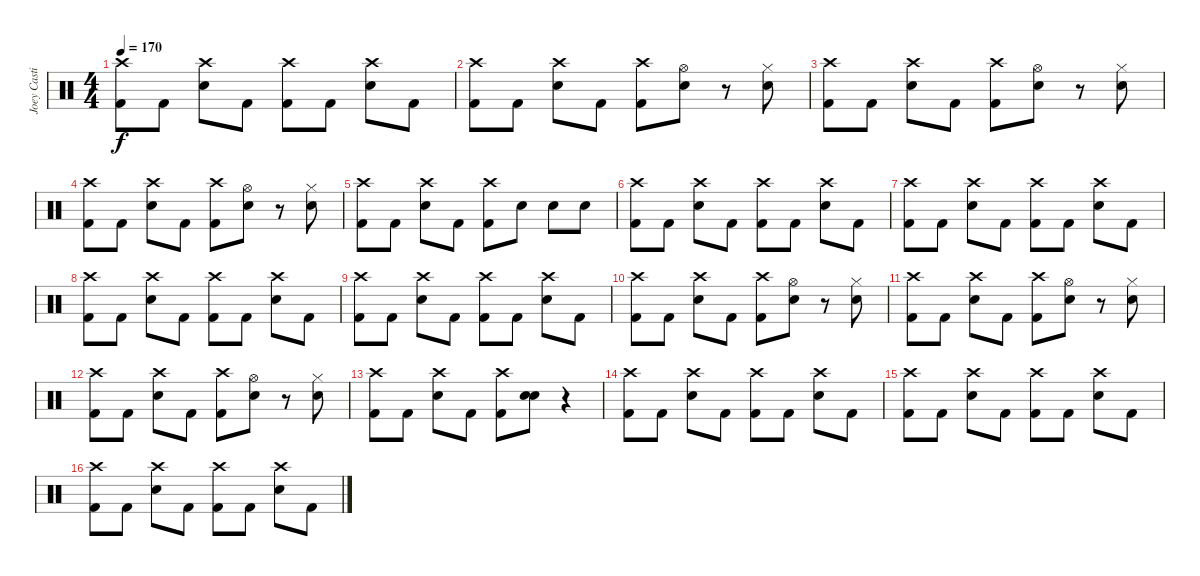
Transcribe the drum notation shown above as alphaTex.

\track ("Joey Castillo - drums" "Joey Casti") {instrument percussion}
\staff {score}
\articulation defaults
\ts (4 4)
\tempo 170
\clef neutral
\ks c
("Kick (hit) 2" "Crash high (hit)").8{dy f} "Kick (hit) 2".8 ("Electric Snare (hit)" "Crash high (hit)").8 "Kick (hit) 2".8 ("Kick (hit) 2" "Crash high (hit)").8 "Kick (hit) 2".8 ("Electric Snare (hit)" "Crash high (hit)").8 "Kick (hit) 2".8 |
("Kick (hit) 2" "Crash high (hit)").8 "Kick (hit) 2".8 ("Electric Snare (hit)" "Crash high (hit)").8 "Kick (hit) 2".8 ("Kick (hit) 2" "Crash high (hit)").8 ("Electric Snare (hit)" "Hi-Hat (open)").8 r.8 ("Electric Snare (hit)" "Hi-Hat (closed)").8 |
("Kick (hit) 2" "Crash high (hit)").8 "Kick (hit) 2".8 ("Electric Snare (hit)" "Crash high (hit)").8 "Kick (hit) 2".8 ("Kick (hit) 2" "Crash high (hit)").8 ("Electric Snare (hit)" "Hi-Hat (open)").8 r.8 ("Electric Snare (hit)" "Hi-Hat (closed)").8 |
("Kick (hit) 2" "Crash high (hit)").8 "Kick (hit) 2".8 ("Electric Snare (hit)" "Crash high (hit)").8 "Kick (hit) 2".8 ("Kick (hit) 2" "Crash high (hit)").8 ("Electric Snare (hit)" "Hi-Hat (open)").8 r.8 ("Electric Snare (hit)" "Hi-Hat (closed)").8 |
("Kick (hit) 2" "Crash high (hit)").8 "Kick (hit) 2".8 ("Electric Snare (hit)" "Crash high (hit)").8 "Kick (hit) 2".8 ("Kick (hit) 2" "Crash high (hit)").8 "Electric Snare (hit)".8 "Electric Snare (hit)".8 "Electric Snare (hit)".8 |
\section ("" "")
("Kick (hit) 2" "Crash high (hit)").8 "Kick (hit) 2".8 ("Electric Snare (hit)" "Crash high (hit)").8 "Kick (hit) 2".8 ("Kick (hit) 2" "Crash high (hit)").8 "Kick (hit) 2".8 ("Electric Snare (hit)" "Crash high (hit)").8 "Kick (hit) 2".8 |
("Kick (hit) 2" "Crash high (hit)").8 "Kick (hit) 2".8 ("Electric Snare (hit)" "Crash high (hit)").8 "Kick (hit) 2".8 ("Kick (hit) 2" "Crash high (hit)").8 "Kick (hit) 2".8 ("Electric Snare (hit)" "Crash high (hit)").8 "Kick (hit) 2".8 |
("Kick (hit) 2" "Crash high (hit)").8 "Kick (hit) 2".8 ("Electric Snare (hit)" "Crash high (hit)").8 "Kick (hit) 2".8 ("Kick (hit) 2" "Crash high (hit)").8 "Kick (hit) 2".8 ("Electric Snare (hit)" "Crash high (hit)").8 "Kick (hit) 2".8 |
("Kick (hit) 2" "Crash high (hit)").8 "Kick (hit) 2".8 ("Electric Snare (hit)" "Crash high (hit)").8 "Kick (hit) 2".8 ("Kick (hit) 2" "Crash high (hit)").8 "Kick (hit) 2".8 ("Electric Snare (hit)" "Crash high (hit)").8 "Kick (hit) 2".8 |
("Kick (hit) 2" "Crash high (hit)").8 "Kick (hit) 2".8 ("Electric Snare (hit)" "Crash high (hit)").8 "Kick (hit) 2".8 ("Kick (hit) 2" "Crash high (hit)").8 ("Electric Snare (hit)" "Hi-Hat (open)").8 r.8 ("Electric Snare (hit)" "Hi-Hat (closed)").8 |
("Kick (hit) 2" "Crash high (hit)").8 "Kick (hit) 2".8 ("Electric Snare (hit)" "Crash high (hit)").8 "Kick (hit) 2".8 ("Kick (hit) 2" "Crash high (hit)").8 ("Electric Snare (hit)" "Hi-Hat (open)").8 r.8 ("Electric Snare (hit)" "Hi-Hat (closed)").8 |
("Kick (hit) 2" "Crash high (hit)").8 "Kick (hit) 2".8 ("Electric Snare (hit)" "Crash high (hit)").8 "Kick (hit) 2".8 ("Kick (hit) 2" "Crash high (hit)").8 ("Electric Snare (hit)" "Hi-Hat (open)").8 r.8 ("Electric Snare (hit)" "Hi-Hat (closed)").8 |
("Kick (hit) 2" "Crash high (hit)").8 "Kick (hit) 2".8 ("Electric Snare (hit)" "Crash high (hit)").8 "Kick (hit) 2".8 ("Kick (hit) 2" "Crash high (hit)").8 ("Electric Snare (hit)" "Snare (hit) 2").8 r.4 |
\section ("" "")
("Kick (hit) 2" "Crash high (hit)").8 "Kick (hit) 2".8 ("Electric Snare (hit)" "Crash high (hit)").8 "Kick (hit) 2".8 ("Kick (hit) 2" "Crash high (hit)").8 "Kick (hit) 2".8 ("Electric Snare (hit)" "Crash high (hit)").8 "Kick (hit) 2".8 |
("Kick (hit) 2" "Crash high (hit)").8 "Kick (hit) 2".8 ("Electric Snare (hit)" "Crash high (hit)").8 "Kick (hit) 2".8 ("Kick (hit) 2" "Crash high (hit)").8 "Kick (hit) 2".8 ("Electric Snare (hit)" "Crash high (hit)").8 "Kick (hit) 2".8 |
("Kick (hit) 2" "Crash high (hit)").8 "Kick (hit) 2".8 ("Electric Snare (hit)" "Crash high (hit)").8 "Kick (hit) 2".8 ("Kick (hit) 2" "Crash high (hit)").8 "Kick (hit) 2".8 ("Electric Snare (hit)" "Crash high (hit)").8 "Kick (hit) 2".8
